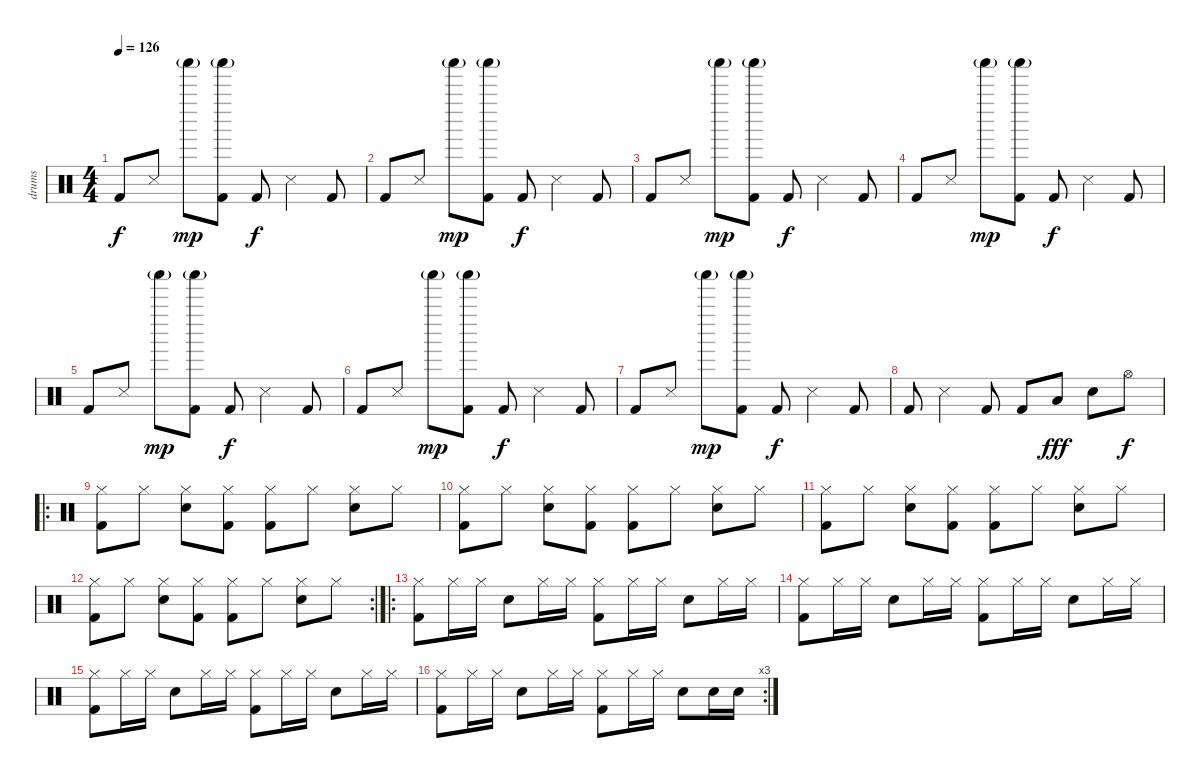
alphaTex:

\track ("drums" "drums") {instrument percussion}
\staff {score}
\articulation defaults
\ts (4 4)
\tempo 126
\clef neutral
\ks c "Kick (hit) 2".8{dy f} "Snare (side stick) 3".8 "Shaker (hit)"{g}.8{dy mp}
("Shaker (hit)"{g} "Kick (hit) 2").8 "Kick (hit) 2".8{dy f} "Snare (side stick) 3".4 "Kick (hit) 2".8 |
"Kick (hit) 2".8 "Snare (side stick) 3".8 "Shaker (hit)"{g}.8{dy mp} ("Shaker (hit)"{g} "Kick (hit) 2").8 "Kick (hit) 2".8{dy f} "Snare (side stick) 3".4 "Kick (hit) 2".8 |
"Kick (hit) 2".8 "Snare (side stick) 3".8 "Shaker (hit)"{g}.8{dy mp} ("Shaker (hit)"{g} "Kick (hit) 2").8 "Kick (hit) 2".8{dy f} "Snare (side stick) 3".4 "Kick (hit) 2".8 |
"Kick (hit) 2".8 "Snare (side stick) 3".8 "Shaker (hit)"{g}.8{dy mp} ("Shaker (hit)"{g} "Kick (hit) 2").8 "Kick (hit) 2".8{dy f} "Snare (side stick) 3".4 "Kick (hit) 2".8 |
"Kick (hit) 2".8 "Snare (side stick) 3".8 "Shaker (hit)"{g}.8{dy mp} ("Shaker (hit)"{g} "Kick (hit) 2").8 "Kick (hit) 2".8{dy f} "Snare (side stick) 3".4 "Kick (hit) 2".8 |
"Kick (hit) 2".8 "Snare (side stick) 3".8 "Shaker (hit)"{g}.8{dy mp} ("Shaker (hit)"{g} "Kick (hit) 2").8 "Kick (hit) 2".8{dy f} "Snare (side stick) 3".4 "Kick (hit) 2".8 |
"Kick (hit) 2".8 "Snare (side stick) 3".8 "Shaker (hit)"{g}.8{dy mp} ("Shaker (hit)"{g} "Kick (hit) 2").8 "Kick (hit) 2".8{dy f} "Snare (side stick) 3".4 "Kick (hit) 2".8 |
"Kick (hit) 2".8 "Snare (side stick) 3".4 "Kick (hit) 2".8 "Kick (hit) 2".8 "Low Tom (hit)".8{dy fff} "Snare (hit) 2".8 "Hi-Hat (open)".8{dy f} |
\ro
("Hi-Hat (closed)" "Kick (hit) 2").8 "Hi-Hat (closed)".8 ("Hi-Hat (closed)" "Snare (hit) 2").8 ("Hi-Hat (closed)" "Kick (hit) 2").8 ("Hi-Hat (closed)" "Kick (hit) 2").8 "Hi-Hat (closed)".8 ("Hi-Hat (closed)" "Snare (hit) 2").8 "Hi-Hat (closed)".8 |
("Hi-Hat (closed)" "Kick (hit) 2").8 "Hi-Hat (closed)".8 ("Hi-Hat (closed)" "Snare (hit) 2").8 ("Hi-Hat (closed)" "Kick (hit) 2").8 ("Hi-Hat (closed)" "Kick (hit) 2").8 "Hi-Hat (closed)".8 ("Hi-Hat (closed)" "Snare (hit) 2").8 "Hi-Hat (closed)".8 |
("Hi-Hat (closed)" "Kick (hit) 2").8 "Hi-Hat (closed)".8 ("Hi-Hat (closed)" "Snare (hit) 2").8 ("Hi-Hat (closed)" "Kick (hit) 2").8 ("Hi-Hat (closed)" "Kick (hit) 2").8 "Hi-Hat (closed)".8 ("Hi-Hat (closed)" "Snare (hit) 2").8 "Hi-Hat (closed)".8 |
\rc 2
("Hi-Hat (closed)" "Kick (hit) 2").8 "Hi-Hat (closed)".8 ("Hi-Hat (closed)" "Snare (hit) 2").8 ("Hi-Hat (closed)" "Kick (hit) 2").8 ("Hi-Hat (closed)" "Kick (hit) 2").8 "Hi-Hat (closed)".8 ("Hi-Hat (closed)" "Snare (hit) 2").8 "Hi-Hat (closed)".8 |
\ro
("Hi-Hat (closed)" "Kick (hit) 2").8 "Hi-Hat (closed)".16 "Hi-Hat (closed)".16 "Snare (hit) 2".8 "Hi-Hat (closed)".16 "Hi-Hat (closed)".16 ("Hi-Hat (closed)" "Kick (hit) 2").8 "Hi-Hat (closed)".16 "Hi-Hat (closed)".16 "Snare (hit) 2".8 "Hi-Hat (closed)".16 "Hi-Hat (closed)".16 |
("Hi-Hat (closed)" "Kick (hit) 2").8 "Hi-Hat (closed)".16 "Hi-Hat (closed)".16 "Snare (hit) 2".8 "Hi-Hat (closed)".16 "Hi-Hat (closed)".16 ("Hi-Hat (closed)" "Kick (hit) 2").8 "Hi-Hat (closed)".16 "Hi-Hat (closed)".16 "Snare (hit) 2".8 "Hi-Hat (closed)".16 "Hi-Hat (closed)".16 |
("Hi-Hat (closed)" "Kick (hit) 2").8 "Hi-Hat (closed)".16 "Hi-Hat (closed)".16 "Snare (hit) 2".8 "Hi-Hat (closed)".16 "Hi-Hat (closed)".16 ("Hi-Hat (closed)" "Kick (hit) 2").8 "Hi-Hat (closed)".16 "Hi-Hat (closed)".16 "Snare (hit) 2".8 "Hi-Hat (closed)".16 "Hi-Hat (closed)".16 |
\rc 3
("Hi-Hat (closed)" "Kick (hit) 2").8 "Hi-Hat (closed)".16 "Hi-Hat (closed)".16 "Snare (hit) 2".8 "Hi-Hat (closed)".16 "Hi-Hat (closed)".16 ("Hi-Hat (closed)" "Kick (hit) 2").8 "Hi-Hat (closed)".16 "Hi-Hat (closed)".16 "Snare (hit) 2".8 "Snare (hit) 2".16 "Snare (hit) 2".16
